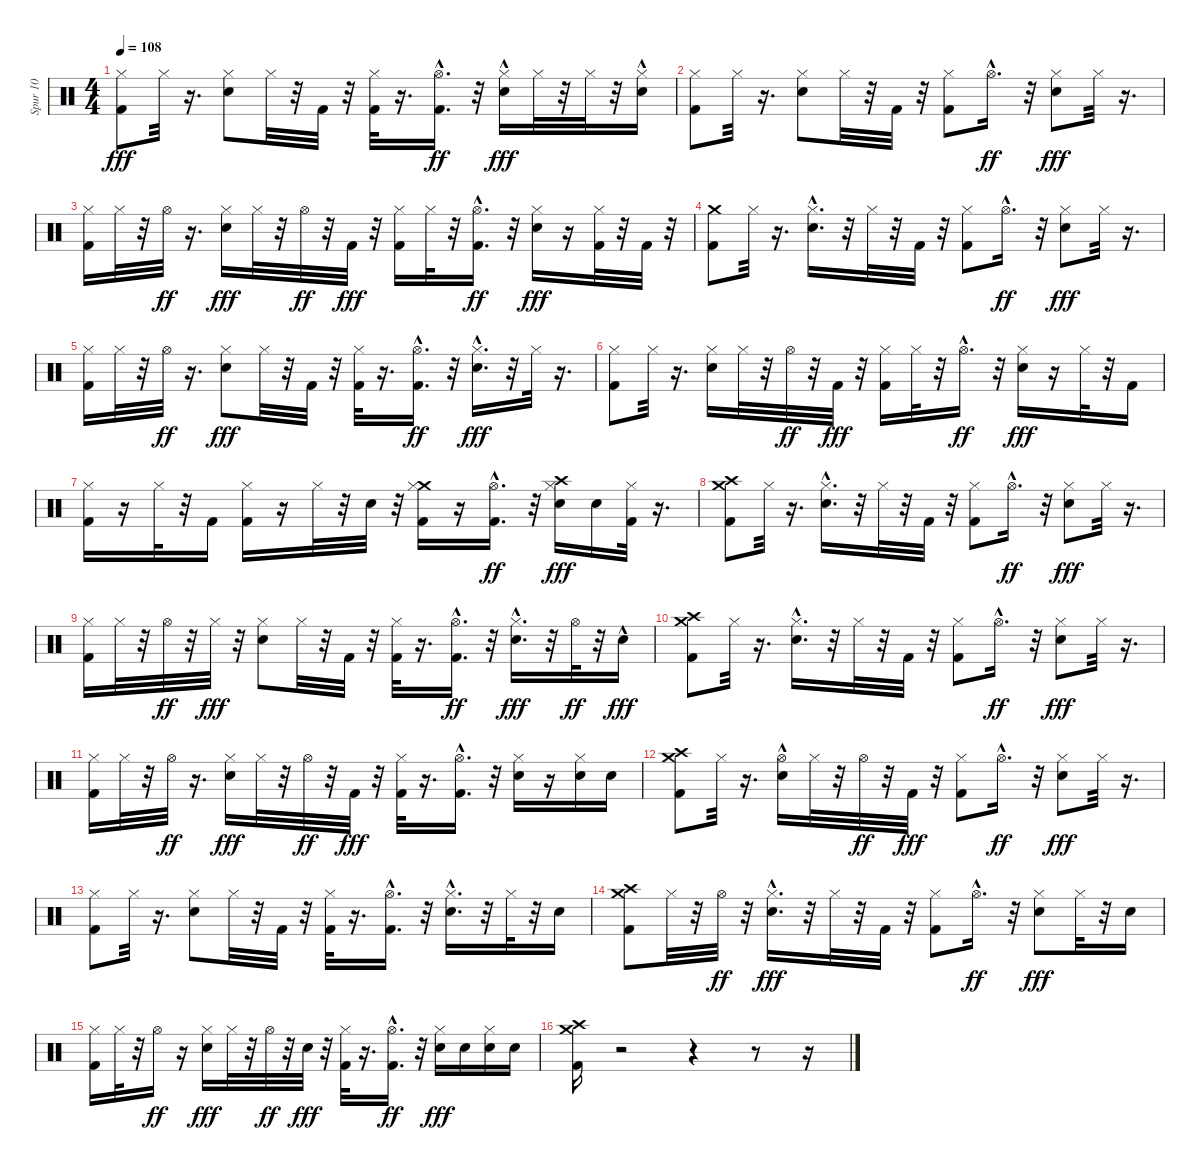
\track ("Spur 10" "Spur 10") {instrument percussion}
\staff {score}
\articulation defaults
\ts (4 4)
\tempo 108
\clef neutral
\ks c
("Kick (hit) 2" "Hi-Hat (closed)").8{dy fff} "Hi-Hat (closed)".32 r.16{d} ("Snare (hit) 2" "Hi-Hat (closed)").8 "Hi-Hat (closed)".32 r.32 "Kick (hit) 2".32 r.32 ("Kick (hit) 2" "Hi-Hat (closed)").32 r.16{d} ("Kick (hit) 2" "Hi-Hat (open)"{hac}).16{d dy ff} r.32 ("Snare (hit) 2"{hac} "Hi-Hat (closed)").16{dy fff} "Hi-Hat (closed)".32 r.32 "Hi-Hat (closed)".32 r.32 ("Hi-Hat (closed)" "Electric Snare (hit)"{hac}).16 |
("Kick (hit) 2" "Hi-Hat (closed)").8 "Hi-Hat (closed)".32 r.16{d} ("Snare (hit) 2" "Hi-Hat (closed)").8 "Hi-Hat (closed)".32 r.32 "Kick (hit) 2".32 r.32 ("Kick (hit) 2" "Hi-Hat (closed)").8 "Hi-Hat (open)"{hac}.16{d dy ff} r.32 ("Snare (hit) 2" "Hi-Hat (closed)").8{dy fff} "Hi-Hat (closed)".32 r.16{d} |
("Kick (hit) 2" "Hi-Hat (closed)").16 "Hi-Hat (closed)".32 r.32 "Hi-Hat (open)".32{dy ff} r.16{d} ("Snare (hit) 2" "Hi-Hat (closed)").16{dy fff} "Hi-Hat (closed)".32 r.32 "Hi-Hat (open)".32{dy ff} r.32 "Kick (hit) 2".32{dy fff} r.32 ("Kick (hit) 2" "Hi-Hat (closed)").16 "Hi-Hat (closed)".32 r.32 ("Kick (hit) 2" "Hi-Hat (open)"{hac}).16{d dy ff} r.32 ("Snare (hit) 2" "Hi-Hat (closed)").16{dy fff} r.16 ("Kick (hit) 2" "Hi-Hat (closed)").32 r.32 "Kick (hit) 2".32 r.32 |
("Kick (hit) 2" "Crash medium (hit)").8 "Hi-Hat (closed)".32 r.16{d} ("Snare (hit) 2"{hac} "Hi-Hat (closed)").16{d} r.32 "Hi-Hat (closed)".32 r.32 "Kick (hit) 2".32 r.32 ("Kick (hit) 2" "Hi-Hat (closed)").8 "Hi-Hat (open)"{hac}.16{d dy ff} r.32 ("Snare (hit) 2" "Hi-Hat (closed)").8{dy fff} "Hi-Hat (closed)".32 r.16{d} |
("Kick (hit) 2" "Hi-Hat (closed)").16 "Hi-Hat (closed)".32 r.32 "Hi-Hat (open)".32{dy ff} r.16{d} ("Snare (hit) 2" "Hi-Hat (closed)").8{dy fff} "Hi-Hat (closed)".32 r.32 "Kick (hit) 2".32 r.32 ("Kick (hit) 2" "Hi-Hat (closed)").32 r.16{d} ("Kick (hit) 2" "Hi-Hat (open)"{hac}).16{d dy ff} r.32 ("Snare (hit) 2"{hac} "Hi-Hat (closed)").16{d dy fff} r.32 "Hi-Hat (closed)".32 r.16{d} |
("Kick (hit) 2" "Hi-Hat (closed)").8 "Hi-Hat (closed)".32 r.16{d} ("Snare (hit) 2" "Hi-Hat (closed)").16 "Hi-Hat (closed)".32 r.32 "Hi-Hat (open)".32{dy ff} r.32 "Kick (hit) 2".32{dy fff} r.32 ("Kick (hit) 2" "Hi-Hat (closed)").16 "Hi-Hat (closed)".32 r.32 "Hi-Hat (open)"{hac}.16{d dy ff} r.32 ("Snare (hit) 2" "Hi-Hat (closed)").16{dy fff} r.16 "Hi-Hat (closed)".32 r.32 "Kick (hit) 2".16 |
("Kick (hit) 2" "Hi-Hat (closed)").16 r.16 "Hi-Hat (closed)".32 r.32 "Kick (hit) 2".16 ("Kick (hit) 2" "Hi-Hat (closed)").16 r.16 "Hi-Hat (closed)".32 r.32 "Electric Snare (hit)".32 r.32 ("Crash medium (hit)" "Kick (hit) 2" "Hi-Hat (closed)").16 r.16 ("Kick (hit) 2" "Hi-Hat (open)"{hac}).16{d dy ff} r.32 ("Crash high (hit)" "Electric Snare (hit)" "Hi-Hat (closed)").16{dy fff} "Electric Snare (hit)".16 ("Kick (hit) 2" "Hi-Hat (closed)").32 r.16{d} |
("Kick (hit) 2" "Crash medium (hit)" "Crash high (hit)").8 "Hi-Hat (closed)".32 r.16{d} ("Snare (hit) 2"{hac} "Hi-Hat (closed)").16{d} r.32 "Hi-Hat (closed)".32 r.32 "Kick (hit) 2".32 r.32 ("Kick (hit) 2" "Hi-Hat (closed)").8 "Hi-Hat (open)"{hac}.16{d dy ff} r.32 ("Snare (hit) 2" "Hi-Hat (closed)").8{dy fff} "Hi-Hat (closed)".32 r.16{d} |
("Kick (hit) 2" "Hi-Hat (closed)").16 "Hi-Hat (closed)".32 r.32 "Hi-Hat (open)".32{dy ff} r.32 "Hi-Hat (closed)".32{dy fff} r.32 ("Snare (hit) 2" "Hi-Hat (closed)").8 "Hi-Hat (closed)".32 r.32 "Kick (hit) 2".32 r.32 ("Kick (hit) 2" "Hi-Hat (closed)").32 r.16{d} ("Kick (hit) 2" "Hi-Hat (open)"{hac}).16{d dy ff} r.32 ("Snare (hit) 2"{hac} "Hi-Hat (closed)").16{d dy fff} r.32 "Hi-Hat (open)".32{dy ff} r.32 "Electric Snare (hit)"{hac}.16{dy fff} |
("Crash medium (hit)" "Crash high (hit)" "Kick (hit) 2").8 "Hi-Hat (closed)".32 r.16{d} ("Hi-Hat (closed)" "Snare (hit) 2"{hac}).16{d} r.32 "Hi-Hat (closed)".32 r.32 "Kick (hit) 2".32 r.32 ("Hi-Hat (closed)" "Kick (hit) 2").8 "Hi-Hat (open)"{hac}.16{d dy ff} r.32 ("Hi-Hat (closed)" "Snare (hit) 2").8{dy fff} "Hi-Hat (closed)".32 r.16{d} |
("Hi-Hat (closed)" "Kick (hit) 2").16 "Hi-Hat (closed)".32 r.32 "Hi-Hat (open)".32{dy ff} r.16{d} ("Hi-Hat (closed)" "Snare (hit) 2").16{dy fff} "Hi-Hat (closed)".32 r.32 "Hi-Hat (open)".32{dy ff} r.32 "Kick (hit) 2".32{dy fff} r.32 ("Hi-Hat (closed)" "Kick (hit) 2").32 r.16{d} ("Hi-Hat (open)"{hac} "Kick (hit) 2").16{d} r.32 ("Hi-Hat (closed)" "Snare (hit) 2").16 r.16 ("Electric Snare (hit)" "Hi-Hat (closed)").16 "Electric Snare (hit)".16 |
("Crash medium (hit)" "Crash high (hit)" "Kick (hit) 2").8 "Hi-Hat (closed)".32 r.16{d} ("Hi-Hat (open)" "Snare (hit) 2"{hac}).16 "Hi-Hat (closed)".32 r.32 "Hi-Hat (open)".32{dy ff} r.32 "Kick (hit) 2".32{dy fff} r.32 ("Hi-Hat (closed)" "Kick (hit) 2").8 "Hi-Hat (open)"{hac}.16{d dy ff} r.32 ("Hi-Hat (closed)" "Snare (hit) 2").8{dy fff} "Hi-Hat (closed)".32 r.16{d} |
("Hi-Hat (closed)" "Kick (hit) 2").8 "Hi-Hat (closed)".32 r.16{d} ("Hi-Hat (closed)" "Snare (hit) 2").8 "Hi-Hat (closed)".32 r.32 "Kick (hit) 2".32 r.32 ("Hi-Hat (closed)" "Kick (hit) 2").32 r.16{d} ("Hi-Hat (open)"{hac} "Kick (hit) 2").16{d} r.32 ("Hi-Hat (closed)" "Snare (hit) 2"{hac}).16{d} r.32 "Hi-Hat (closed)".32 r.32 "Electric Snare (hit)".16 |
("Kick (hit) 2" "Crash medium (hit)" "Crash high (hit)").8 "Hi-Hat (closed)".32 r.32 "Hi-Hat (open)".32{dy ff} r.32 ("Snare (hit) 2"{hac} "Hi-Hat (closed)").16{d dy fff} r.32 "Hi-Hat (closed)".32 r.32 "Kick (hit) 2".32 r.32 ("Kick (hit) 2" "Hi-Hat (closed)").8 "Hi-Hat (open)"{hac}.16{d dy ff} r.32 ("Snare (hit) 2" "Hi-Hat (closed)").8{dy fff} "Hi-Hat (closed)".32 r.32 "Electric Snare (hit)".16 |
("Kick (hit) 2" "Hi-Hat (closed)").16 "Hi-Hat (closed)".32 r.32 "Hi-Hat (open)".16{dy ff} r.16 ("Snare (hit) 2" "Hi-Hat (closed)").16{dy fff} "Hi-Hat (closed)".32 r.32 "Hi-Hat (open)".32{dy ff} r.32 "Electric Snare (hit)".32{dy fff} r.32 ("Kick (hit) 2" "Hi-Hat (closed)").32 r.16{d} ("Kick (hit) 2" "Hi-Hat (open)"{hac}).16{d dy ff} r.32 ("Snare (hit) 2" "Hi-Hat (closed)").16{dy fff} "Snare (hit) 2".16 ("Electric Snare (hit)" "Hi-Hat (closed)").16 "Electric Snare (hit)".16 |
("Crash medium (hit)" "Crash high (hit)" "Kick (hit) 2").16 r.2 r.4 r.8 r.16
